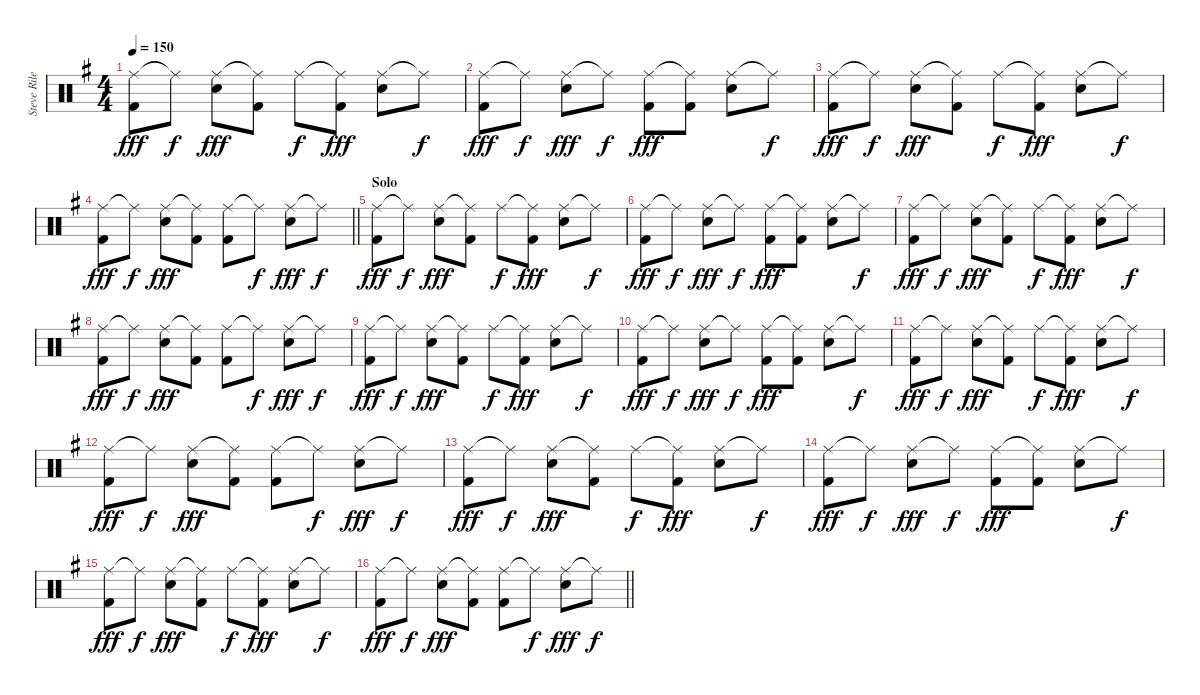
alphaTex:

\track ("Steve Riley - Drums" "Steve Rile") {instrument percussion}
\staff {score}
\articulation defaults
\ts (4 4)
\tempo 150
\clef neutral
\ks g
("Ride (middle)" "Kick (hit) 2").8{dy fff} "Ride (middle)"{t}.8{dy f} ("Ride (middle)" "Electric Snare (hit)").8{dy fff} ("Ride (middle)"{t} "Kick (hit) 2").8 "Ride (middle)".8{dy f} ("Ride (middle)"{t} "Kick (hit) 2").8{dy fff} ("Ride (middle)" "Electric Snare (hit)").8 "Ride (middle)"{t}.8{dy f} |
("Ride (middle)" "Kick (hit) 2").8{dy fff} "Ride (middle)"{t}.8{dy f} ("Ride (middle)" "Electric Snare (hit)").8{dy fff} "Ride (middle)"{t}.8{dy f} ("Ride (middle)" "Kick (hit) 2").8{dy fff} ("Ride (middle)"{t} "Kick (hit) 2").8 ("Ride (middle)" "Electric Snare (hit)").8 "Ride (middle)"{t}.8{dy f} |
("Ride (middle)" "Kick (hit) 2").8{dy fff} "Ride (middle)"{t}.8{dy f} ("Ride (middle)" "Electric Snare (hit)").8{dy fff} ("Ride (middle)"{t} "Kick (hit) 2").8 "Ride (middle)".8{dy f} ("Ride (middle)"{t} "Kick (hit) 2").8{dy fff} ("Ride (middle)" "Electric Snare (hit)").8 "Ride (middle)"{t}.8{dy f} |
\barLineRight lightlight
("Ride (middle)" "Kick (hit) 2").8{dy fff} "Ride (middle)"{t}.8{dy f} ("Ride (middle)" "Electric Snare (hit)").8{dy fff} ("Ride (middle)"{t} "Kick (hit) 2").8 ("Ride (middle)" "Kick (hit) 2").8 "Ride (middle)"{t}.8{dy f} ("Ride (middle)" "Electric Snare (hit)").8{dy fff} "Ride (middle)"{t}.8{dy f} |
\section ("" "Solo")
("Ride (middle)" "Kick (hit) 2").8{dy fff} "Ride (middle)"{t}.8{dy f} ("Ride (middle)" "Electric Snare (hit)").8{dy fff} ("Ride (middle)"{t} "Kick (hit) 2").8 "Ride (middle)".8{dy f} ("Ride (middle)"{t} "Kick (hit) 2").8{dy fff} ("Ride (middle)" "Electric Snare (hit)").8 "Ride (middle)"{t}.8{dy f} |
("Ride (middle)" "Kick (hit) 2").8{dy fff} "Ride (middle)"{t}.8{dy f} ("Ride (middle)" "Electric Snare (hit)").8{dy fff} "Ride (middle)"{t}.8{dy f} ("Ride (middle)" "Kick (hit) 2").8{dy fff} ("Ride (middle)"{t} "Kick (hit) 2").8 ("Ride (middle)" "Electric Snare (hit)").8 "Ride (middle)"{t}.8{dy f} |
("Ride (middle)" "Kick (hit) 2").8{dy fff} "Ride (middle)"{t}.8{dy f} ("Ride (middle)" "Electric Snare (hit)").8{dy fff} ("Ride (middle)"{t} "Kick (hit) 2").8 "Ride (middle)".8{dy f} ("Ride (middle)"{t} "Kick (hit) 2").8{dy fff} ("Ride (middle)" "Electric Snare (hit)").8 "Ride (middle)"{t}.8{dy f} |
("Ride (middle)" "Kick (hit) 2").8{dy fff} "Ride (middle)"{t}.8{dy f} ("Ride (middle)" "Electric Snare (hit)").8{dy fff} ("Ride (middle)"{t} "Kick (hit) 2").8 ("Ride (middle)" "Kick (hit) 2").8 "Ride (middle)"{t}.8{dy f} ("Ride (middle)" "Electric Snare (hit)").8{dy fff} "Ride (middle)"{t}.8{dy f} |
("Ride (middle)" "Kick (hit) 2").8{dy fff} "Ride (middle)"{t}.8{dy f} ("Ride (middle)" "Electric Snare (hit)").8{dy fff} ("Ride (middle)"{t} "Kick (hit) 2").8 "Ride (middle)".8{dy f} ("Ride (middle)"{t} "Kick (hit) 2").8{dy fff} ("Ride (middle)" "Electric Snare (hit)").8 "Ride (middle)"{t}.8{dy f} |
("Ride (middle)" "Kick (hit) 2").8{dy fff} "Ride (middle)"{t}.8{dy f} ("Ride (middle)" "Electric Snare (hit)").8{dy fff} "Ride (middle)"{t}.8{dy f} ("Ride (middle)" "Kick (hit) 2").8{dy fff} ("Ride (middle)"{t} "Kick (hit) 2").8 ("Ride (middle)" "Electric Snare (hit)").8 "Ride (middle)"{t}.8{dy f} |
("Ride (middle)" "Kick (hit) 2").8{dy fff} "Ride (middle)"{t}.8{dy f} ("Ride (middle)" "Electric Snare (hit)").8{dy fff} ("Ride (middle)"{t} "Kick (hit) 2").8 "Ride (middle)".8{dy f} ("Ride (middle)"{t} "Kick (hit) 2").8{dy fff} ("Ride (middle)" "Electric Snare (hit)").8 "Ride (middle)"{t}.8{dy f} |
("Ride (middle)" "Kick (hit) 2").8{dy fff} "Ride (middle)"{t}.8{dy f} ("Ride (middle)" "Electric Snare (hit)").8{dy fff} ("Ride (middle)"{t} "Kick (hit) 2").8 ("Ride (middle)" "Kick (hit) 2").8 "Ride (middle)"{t}.8{dy f} ("Ride (middle)" "Electric Snare (hit)").8{dy fff} "Ride (middle)"{t}.8{dy f} |
("Ride (middle)" "Kick (hit) 2").8{dy fff} "Ride (middle)"{t}.8{dy f} ("Ride (middle)" "Electric Snare (hit)").8{dy fff} ("Ride (middle)"{t} "Kick (hit) 2").8 "Ride (middle)".8{dy f} ("Ride (middle)"{t} "Kick (hit) 2").8{dy fff} ("Ride (middle)" "Electric Snare (hit)").8 "Ride (middle)"{t}.8{dy f} |
("Ride (middle)" "Kick (hit) 2").8{dy fff} "Ride (middle)"{t}.8{dy f} ("Ride (middle)" "Electric Snare (hit)").8{dy fff} "Ride (middle)"{t}.8{dy f} ("Ride (middle)" "Kick (hit) 2").8{dy fff} ("Ride (middle)"{t} "Kick (hit) 2").8 ("Ride (middle)" "Electric Snare (hit)").8 "Ride (middle)"{t}.8{dy f} |
("Ride (middle)" "Kick (hit) 2").8{dy fff} "Ride (middle)"{t}.8{dy f} ("Ride (middle)" "Electric Snare (hit)").8{dy fff} ("Ride (middle)"{t} "Kick (hit) 2").8 "Ride (middle)".8{dy f} ("Ride (middle)"{t} "Kick (hit) 2").8{dy fff} ("Ride (middle)" "Electric Snare (hit)").8 "Ride (middle)"{t}.8{dy f} |
\barLineRight lightlight
("Ride (middle)" "Kick (hit) 2").8{dy fff} "Ride (middle)"{t}.8{dy f} ("Ride (middle)" "Electric Snare (hit)").8{dy fff} ("Ride (middle)"{t} "Kick (hit) 2").8 ("Ride (middle)" "Kick (hit) 2").8 "Ride (middle)"{t}.8{dy f} ("Ride (middle)" "Electric Snare (hit)").8{dy fff} "Ride (middle)"{t}.8{dy f}
